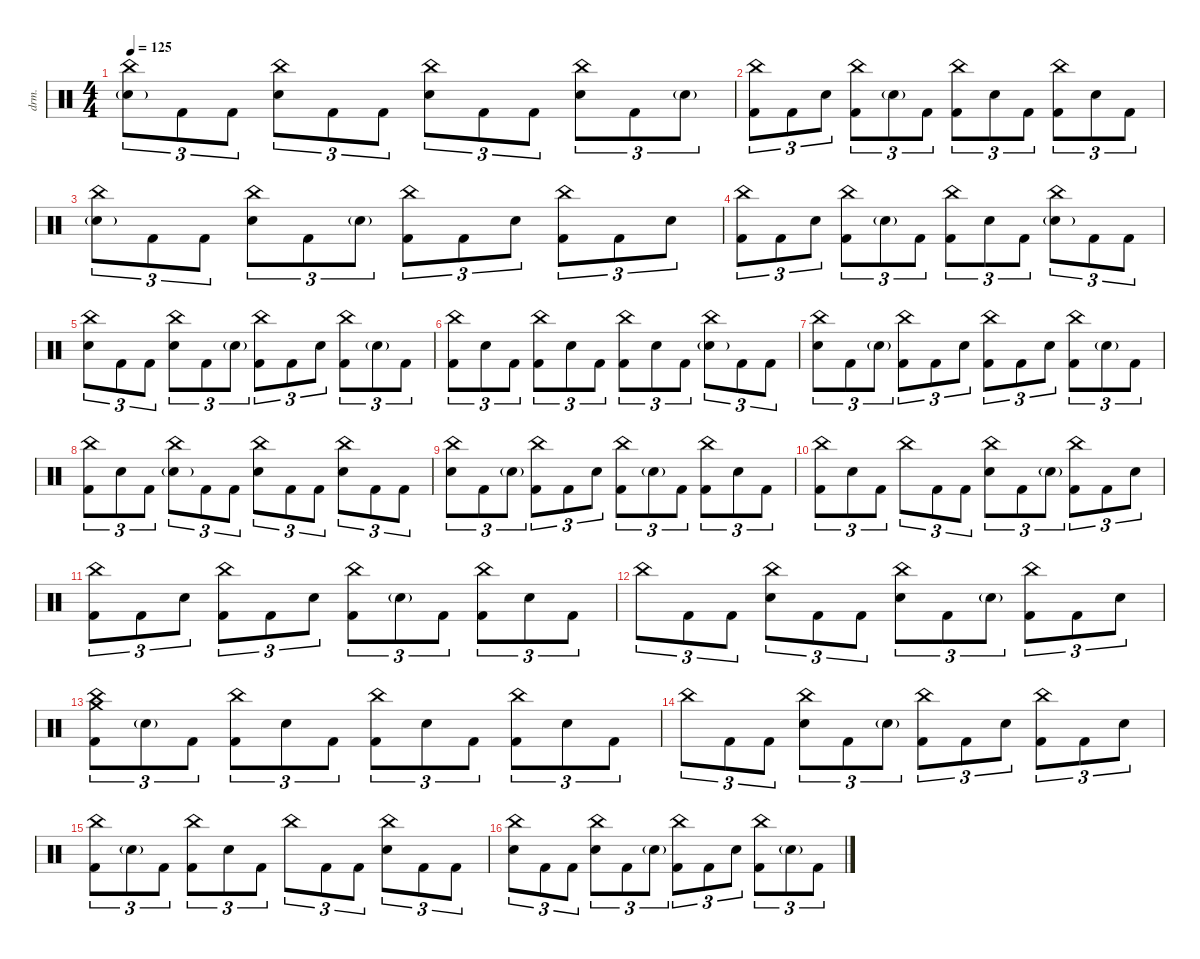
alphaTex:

\defaultSystemsLayout 4
\hideDynamics
\bracketExtendMode nobrackets
\track ("DRUMS (Thomas Haake)" "drm.") {instrument percussion}
\staff {score}
\articulation defaults
\ts (4 4)
\tempo 125
\clef neutral
\ks c
("China (hit)" "Snare (hit) 2"{g}).8{tu (3 2) dy f} "Kick (hit) 2".8{tu (3 2)} "Kick (hit) 2".8{tu (3 2)} ("China (hit)" "Snare (hit) 2").8{tu (3 2)} "Kick (hit) 2".8{tu (3 2)} "Kick (hit) 2".8{tu (3 2)} ("China (hit)" "Snare (hit) 2").8{tu (3 2)} "Kick (hit) 2".8{tu (3 2)} "Kick (hit) 2".8{tu (3 2)} ("China (hit)" "Snare (hit) 2").8{tu (3 2)} "Kick (hit) 2".8{tu (3 2)} "Snare (hit) 2"{g}.8{tu (3 2) dy p} |
("China (hit)" "Kick (hit) 2").8{tu (3 2) dy f} "Kick (hit) 2".8{tu (3 2)} "Snare (hit) 2".8{tu (3 2)} ("China (hit)" "Kick (hit) 2").8{tu (3 2)} "Snare (hit) 2"{g}.8{tu (3 2) dy p} "Kick (hit) 2".8{tu (3 2) dy f} ("China (hit)" "Kick (hit) 2").8{tu (3 2)} "Snare (hit) 2".8{tu (3 2)} "Kick (hit) 2".8{tu (3 2)} ("China (hit)" "Kick (hit) 2").8{tu (3 2)} "Snare (hit) 2".8{tu (3 2)} "Kick (hit) 2".8{tu (3 2)} |
("China (hit)" "Snare (hit) 2"{g}).8{tu (3 2)} "Kick (hit) 2".8{tu (3 2)} "Kick (hit) 2".8{tu (3 2)} ("China (hit)" "Snare (hit) 2").8{tu (3 2)} "Kick (hit) 2".8{tu (3 2)} "Snare (hit) 2"{g}.8{tu (3 2) dy p} ("China (hit)" "Kick (hit) 2").8{tu (3 2) dy f} "Kick (hit) 2".8{tu (3 2)} "Snare (hit) 2".8{tu (3 2)} ("China (hit)" "Kick (hit) 2").8{tu (3 2)} "Kick (hit) 2".8{tu (3 2)} "Snare (hit) 2".8{tu (3 2)} |
("China (hit)" "Kick (hit) 2").8{tu (3 2)} "Kick (hit) 2".8{tu (3 2)} "Snare (hit) 2".8{tu (3 2)} ("China (hit)" "Kick (hit) 2").8{tu (3 2)} "Snare (hit) 2"{g}.8{tu (3 2) dy p} "Kick (hit) 2".8{tu (3 2) dy f} ("China (hit)" "Kick (hit) 2").8{tu (3 2)} "Snare (hit) 2".8{tu (3 2)} "Kick (hit) 2".8{tu (3 2)} ("China (hit)" "Snare (hit) 2"{g}).8{tu (3 2)} "Kick (hit) 2".8{tu (3 2)} "Kick (hit) 2".8{tu (3 2)} |
("China (hit)" "Snare (hit) 2").8{tu (3 2)} "Kick (hit) 2".8{tu (3 2)} "Kick (hit) 2".8{tu (3 2)} ("China (hit)" "Snare (hit) 2").8{tu (3 2)} "Kick (hit) 2".8{tu (3 2)} "Snare (hit) 2"{g}.8{tu (3 2) dy p} ("China (hit)" "Kick (hit) 2").8{tu (3 2) dy f} "Kick (hit) 2".8{tu (3 2)} "Snare (hit) 2".8{tu (3 2)} ("China (hit)" "Kick (hit) 2").8{tu (3 2)} "Snare (hit) 2"{g}.8{tu (3 2) dy p} "Kick (hit) 2".8{tu (3 2) dy f} |
("China (hit)" "Kick (hit) 2").8{tu (3 2)} "Snare (hit) 2".8{tu (3 2)} "Kick (hit) 2".8{tu (3 2)} ("China (hit)" "Kick (hit) 2").8{tu (3 2)} "Snare (hit) 2".8{tu (3 2)} "Kick (hit) 2".8{tu (3 2)} ("China (hit)" "Kick (hit) 2").8{tu (3 2)} "Snare (hit) 2".8{tu (3 2)} "Kick (hit) 2".8{tu (3 2)} ("China (hit)" "Snare (hit) 2"{g}).8{tu (3 2)} "Kick (hit) 2".8{tu (3 2)} "Kick (hit) 2".8{tu (3 2)} |
("China (hit)" "Snare (hit) 2").8{tu (3 2)} "Kick (hit) 2".8{tu (3 2)} "Snare (hit) 2"{g}.8{tu (3 2) dy p} ("China (hit)" "Kick (hit) 2").8{tu (3 2) dy f} "Kick (hit) 2".8{tu (3 2)} "Snare (hit) 2".8{tu (3 2)} ("China (hit)" "Kick (hit) 2").8{tu (3 2)} "Kick (hit) 2".8{tu (3 2)} "Snare (hit) 2".8{tu (3 2)} ("China (hit)" "Kick (hit) 2").8{tu (3 2)} "Snare (hit) 2"{g}.8{tu (3 2) dy p} "Kick (hit) 2".8{tu (3 2) dy f} |
("China (hit)" "Kick (hit) 2").8{tu (3 2)} "Snare (hit) 2".8{tu (3 2)} "Kick (hit) 2".8{tu (3 2)} ("China (hit)" "Snare (hit) 2"{g}).8{tu (3 2)} "Kick (hit) 2".8{tu (3 2)} "Kick (hit) 2".8{tu (3 2)} ("China (hit)" "Snare (hit) 2").8{tu (3 2)} "Kick (hit) 2".8{tu (3 2)} "Kick (hit) 2".8{tu (3 2)} ("China (hit)" "Snare (hit) 2").8{tu (3 2)} "Kick (hit) 2".8{tu (3 2)} "Kick (hit) 2".8{tu (3 2)} |
("China (hit)" "Snare (hit) 2").8{tu (3 2)} "Kick (hit) 2".8{tu (3 2)} "Snare (hit) 2"{g}.8{tu (3 2) dy p} ("China (hit)" "Kick (hit) 2").8{tu (3 2) dy f} "Kick (hit) 2".8{tu (3 2)} "Snare (hit) 2".8{tu (3 2)} ("China (hit)" "Kick (hit) 2").8{tu (3 2)} "Snare (hit) 2"{g}.8{tu (3 2) dy p} "Kick (hit) 2".8{tu (3 2) dy f} ("China (hit)" "Kick (hit) 2").8{tu (3 2)} "Snare (hit) 2".8{tu (3 2)} "Kick (hit) 2".8{tu (3 2)} |
("China (hit)" "Kick (hit) 2").8{tu (3 2)} "Snare (hit) 2".8{tu (3 2)} "Kick (hit) 2".8{tu (3 2)} "China (hit)".8{tu (3 2)} "Kick (hit) 2".8{tu (3 2)} "Kick (hit) 2".8{tu (3 2)} ("China (hit)" "Snare (hit) 2").8{tu (3 2)} "Kick (hit) 2".8{tu (3 2)} "Snare (hit) 2"{g}.8{tu (3 2) dy p} ("China (hit)" "Kick (hit) 2").8{tu (3 2) dy f} "Kick (hit) 2".8{tu (3 2)} "Snare (hit) 2".8{tu (3 2)} |
("China (hit)" "Kick (hit) 2").8{tu (3 2)} "Kick (hit) 2".8{tu (3 2)} "Snare (hit) 2".8{tu (3 2)} ("China (hit)" "Kick (hit) 2").8{tu (3 2)} "Kick (hit) 2".8{tu (3 2)} "Snare (hit) 2".8{tu (3 2)} ("China (hit)" "Kick (hit) 2").8{tu (3 2)} "Snare (hit) 2"{g}.8{tu (3 2) dy p} "Kick (hit) 2".8{tu (3 2) dy f} ("China (hit)" "Kick (hit) 2").8{tu (3 2)} "Snare (hit) 2".8{tu (3 2)} "Kick (hit) 2".8{tu (3 2)} |
"China (hit)".8{tu (3 2)} "Kick (hit) 2".8{tu (3 2)} "Kick (hit) 2".8{tu (3 2)} ("China (hit)" "Snare (hit) 2").8{tu (3 2)} "Kick (hit) 2".8{tu (3 2)} "Kick (hit) 2".8{tu (3 2)} ("China (hit)" "Snare (hit) 2").8{tu (3 2)} "Kick (hit) 2".8{tu (3 2)} "Snare (hit) 2"{g}.8{tu (3 2) dy p} ("China (hit)" "Kick (hit) 2").8{tu (3 2) dy f} "Kick (hit) 2".8{tu (3 2)} "Snare (hit) 2".8{tu (3 2)} |
("China (hit)" "Crash medium (hit)" "Kick (hit) 2").8{tu (3 2) dy mf} "Snare (hit) 2"{g}.8{tu (3 2) dy p} "Kick (hit) 2".8{tu (3 2) dy f} ("China (hit)" "Kick (hit) 2").8{tu (3 2)} "Snare (hit) 2".8{tu (3 2)} "Kick (hit) 2".8{tu (3 2)} ("China (hit)" "Kick (hit) 2").8{tu (3 2)} "Snare (hit) 2".8{tu (3 2)} "Kick (hit) 2".8{tu (3 2)} ("China (hit)" "Kick (hit) 2").8{tu (3 2)} "Snare (hit) 2".8{tu (3 2)} "Kick (hit) 2".8{tu (3 2)} |
"China (hit)".8{tu (3 2)} "Kick (hit) 2".8{tu (3 2)} "Kick (hit) 2".8{tu (3 2)} ("China (hit)" "Snare (hit) 2").8{tu (3 2)} "Kick (hit) 2".8{tu (3 2)} "Snare (hit) 2"{g}.8{tu (3 2) dy p} ("China (hit)" "Kick (hit) 2").8{tu (3 2) dy f} "Kick (hit) 2".8{tu (3 2)} "Snare (hit) 2".8{tu (3 2)} ("China (hit)" "Kick (hit) 2").8{tu (3 2)} "Kick (hit) 2".8{tu (3 2)} "Snare (hit) 2".8{tu (3 2)} |
("China (hit)" "Kick (hit) 2").8{tu (3 2)} "Snare (hit) 2"{g}.8{tu (3 2) dy p} "Kick (hit) 2".8{tu (3 2) dy f} ("China (hit)" "Kick (hit) 2").8{tu (3 2)} "Snare (hit) 2".8{tu (3 2)} "Kick (hit) 2".8{tu (3 2)} "China (hit)".8{tu (3 2)} "Kick (hit) 2".8{tu (3 2)} "Kick (hit) 2".8{tu (3 2)} ("China (hit)" "Snare (hit) 2").8{tu (3 2)} "Kick (hit) 2".8{tu (3 2)} "Kick (hit) 2".8{tu (3 2)} |
("China (hit)" "Snare (hit) 2").8{tu (3 2)} "Kick (hit) 2".8{tu (3 2)} "Kick (hit) 2".8{tu (3 2)} ("China (hit)" "Snare (hit) 2").8{tu (3 2)} "Kick (hit) 2".8{tu (3 2)} "Snare (hit) 2"{g}.8{tu (3 2) dy p} ("China (hit)" "Kick (hit) 2").8{tu (3 2) dy f} "Kick (hit) 2".8{tu (3 2)} "Snare (hit) 2".8{tu (3 2)} ("China (hit)" "Kick (hit) 2").8{tu (3 2)} "Snare (hit) 2"{g}.8{tu (3 2) dy p} "Kick (hit) 2".8{tu (3 2) dy f}
